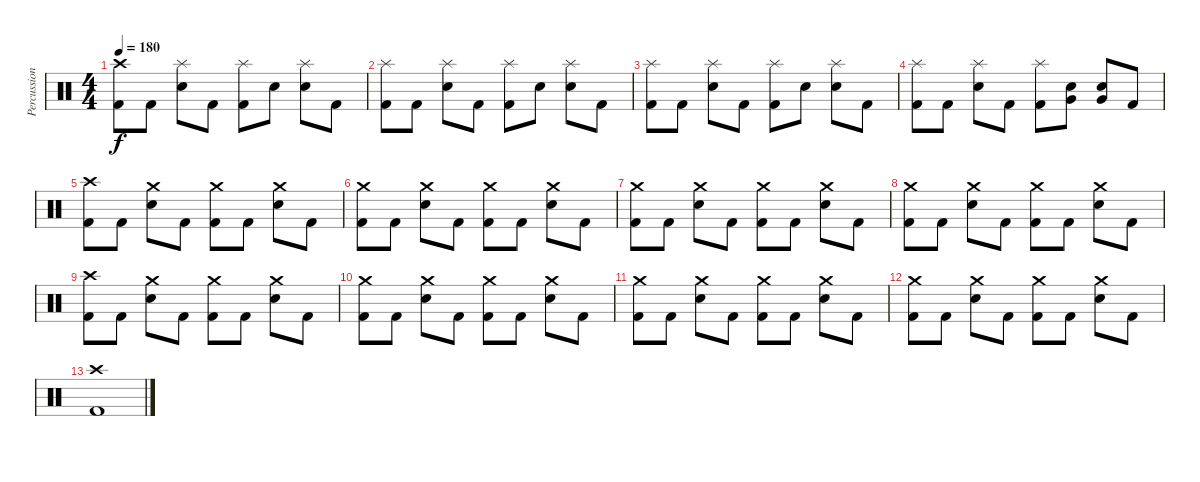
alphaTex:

\track ("Percussion" "Percussion") {instrument percussion}
\staff {score}
\articulation defaults
\ts (4 4)
\tempo 180
\clef neutral
\ks c
("Crash high (hit)" "Kick (hit) 2").8{dy f} "Kick (hit) 2".8 ("Splash (hit)" "Electric Snare (hit)").8 "Kick (hit) 2".8 ("Splash (hit)" "Kick (hit) 2").8 "Electric Snare (hit)".8 ("Splash (hit)" "Electric Snare (hit)").8 "Kick (hit) 2".8 |
("Splash (hit)" "Kick (hit) 2").8 "Kick (hit) 2".8 ("Splash (hit)" "Electric Snare (hit)").8 "Kick (hit) 2".8 ("Splash (hit)" "Kick (hit) 2").8 "Electric Snare (hit)".8 ("Splash (hit)" "Electric Snare (hit)").8 "Kick (hit) 2".8 |
("Splash (hit)" "Kick (hit) 2").8 "Kick (hit) 2".8 ("Splash (hit)" "Electric Snare (hit)").8 "Kick (hit) 2".8 ("Splash (hit)" "Kick (hit) 2").8 "Electric Snare (hit)".8 ("Splash (hit)" "Electric Snare (hit)").8 "Kick (hit) 2".8 |
("Splash (hit)" "Kick (hit) 2").8 "Kick (hit) 2".8 ("Splash (hit)" "Electric Snare (hit)").8 "Kick (hit) 2".8 ("Splash (hit)" "Kick (hit) 2").8 ("Electric Snare (hit)" "Very Low Tom (hit)").8 ("Electric Snare (hit)" "Very Low Tom (hit)").8 "Kick (hit) 2".8 |
("Crash high (hit)" "Kick (hit) 2").8 "Kick (hit) 2".8 ("Crash medium (hit)" "Electric Snare (hit)").8 "Kick (hit) 2".8 ("Crash medium (hit)" "Kick (hit) 2").8 "Kick (hit) 2".8 ("Crash medium (hit)" "Electric Snare (hit)").8 "Kick (hit) 2".8 |
("Crash medium (hit)" "Kick (hit) 2").8 "Kick (hit) 2".8 ("Crash medium (hit)" "Electric Snare (hit)").8 "Kick (hit) 2".8 ("Crash medium (hit)" "Kick (hit) 2").8 "Kick (hit) 2".8 ("Crash medium (hit)" "Electric Snare (hit)").8 "Kick (hit) 2".8 |
("Crash medium (hit)" "Kick (hit) 2").8 "Kick (hit) 2".8 ("Crash medium (hit)" "Electric Snare (hit)").8 "Kick (hit) 2".8 ("Crash medium (hit)" "Kick (hit) 2").8 "Kick (hit) 2".8 ("Crash medium (hit)" "Electric Snare (hit)").8 "Kick (hit) 2".8 |
("Crash medium (hit)" "Kick (hit) 2").8 "Kick (hit) 2".8 ("Crash medium (hit)" "Electric Snare (hit)").8 "Kick (hit) 2".8 ("Crash medium (hit)" "Kick (hit) 2").8 "Kick (hit) 2".8 ("Crash medium (hit)" "Electric Snare (hit)").8 "Kick (hit) 2".8 |
("Crash high (hit)" "Kick (hit) 2").8 "Kick (hit) 2".8 ("Crash medium (hit)" "Electric Snare (hit)").8 "Kick (hit) 2".8 ("Crash medium (hit)" "Kick (hit) 2").8 "Kick (hit) 2".8 ("Crash medium (hit)" "Electric Snare (hit)").8 "Kick (hit) 2".8 |
("Crash medium (hit)" "Kick (hit) 2").8 "Kick (hit) 2".8 ("Crash medium (hit)" "Electric Snare (hit)").8 "Kick (hit) 2".8 ("Crash medium (hit)" "Kick (hit) 2").8 "Kick (hit) 2".8 ("Crash medium (hit)" "Electric Snare (hit)").8 "Kick (hit) 2".8 |
("Crash medium (hit)" "Kick (hit) 2").8 "Kick (hit) 2".8 ("Crash medium (hit)" "Electric Snare (hit)").8 "Kick (hit) 2".8 ("Crash medium (hit)" "Kick (hit) 2").8 "Kick (hit) 2".8 ("Crash medium (hit)" "Electric Snare (hit)").8 "Kick (hit) 2".8 |
("Crash medium (hit)" "Kick (hit) 2").8 "Kick (hit) 2".8 ("Crash medium (hit)" "Electric Snare (hit)").8 "Kick (hit) 2".8 ("Crash medium (hit)" "Kick (hit) 2").8 "Kick (hit) 2".8 ("Crash medium (hit)" "Electric Snare (hit)").8 "Kick (hit) 2".8 |
("Crash high (hit)" "Kick (hit) 2").1
